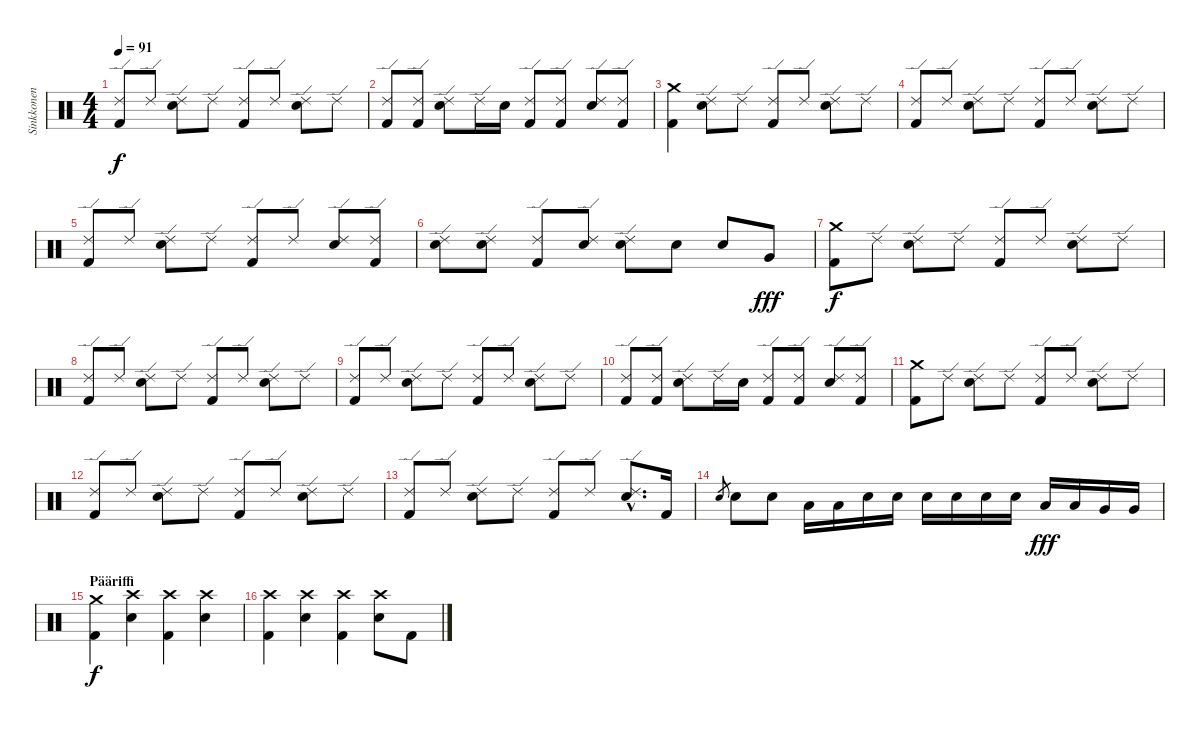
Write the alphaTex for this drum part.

\track ("Sinkkonen" "Sinkkonen") {instrument percussion}
\staff {score}
\articulation defaults
\ts (4 4)
\tempo 91
\clef neutral
\ks c
("Kick (hit) 2" "Ride (edge) 2").8{dy f} "Ride (edge) 2".8 ("Ride (edge) 2" "Snare (hit) 2").8 "Ride (edge) 2".8 ("Kick (hit) 2" "Ride (edge) 2").8 "Ride (edge) 2".8 ("Ride (edge) 2" "Snare (hit) 2").8 "Ride (edge) 2".8 |
("Kick (hit) 2" "Ride (edge) 2").8 ("Kick (hit) 2" "Ride (edge) 2").8 ("Ride (edge) 2" "Snare (hit) 2").8 "Ride (edge) 2".16 "Snare (hit) 2".16 ("Kick (hit) 2" "Ride (edge) 2").8 ("Kick (hit) 2" "Ride (edge) 2").8 ("Ride (edge) 2" "Snare (hit) 2").8 ("Kick (hit) 2" "Ride (edge) 2").8 |
("Kick (hit) 2" "Crash medium (hit)").4 ("Ride (edge) 2" "Snare (hit) 2").8 "Ride (edge) 2".8 ("Kick (hit) 2" "Ride (edge) 2").8 "Ride (edge) 2".8 ("Ride (edge) 2" "Snare (hit) 2").8 "Ride (edge) 2".8 |
("Kick (hit) 2" "Ride (edge) 2").8 "Ride (edge) 2".8 ("Ride (edge) 2" "Snare (hit) 2").8 "Ride (edge) 2".8 ("Kick (hit) 2" "Ride (edge) 2").8 "Ride (edge) 2".8 ("Ride (edge) 2" "Snare (hit) 2").8 "Ride (edge) 2".8 |
("Kick (hit) 2" "Ride (edge) 2").8 "Ride (edge) 2".8 ("Ride (edge) 2" "Snare (hit) 2").8 "Ride (edge) 2".8 ("Kick (hit) 2" "Ride (edge) 2").8 "Ride (edge) 2".8 ("Ride (edge) 2" "Snare (hit) 2").8 ("Kick (hit) 2" "Ride (edge) 2").8 |
("Ride (edge) 2" "Snare (hit) 2").8 ("Ride (edge) 2" "Snare (hit) 2").8 ("Kick (hit) 2" "Ride (edge) 2").8 ("Ride (edge) 2" "Snare (hit) 2").8 ("Ride (edge) 2" "Snare (hit) 2").8 "Snare (hit) 2".8 "Snare (hit) 2".8 "Very Low Tom (hit)".8{dy fff} |
("Kick (hit) 2" "Crash medium (hit)").8{dy f} "Ride (edge) 2".8 ("Ride (edge) 2" "Snare (hit) 2").8 "Ride (edge) 2".8 ("Kick (hit) 2" "Ride (edge) 2").8 "Ride (edge) 2".8 ("Ride (edge) 2" "Snare (hit) 2").8 "Ride (edge) 2".8 |
("Kick (hit) 2" "Ride (edge) 2").8 "Ride (edge) 2".8 ("Ride (edge) 2" "Snare (hit) 2").8 "Ride (edge) 2".8 ("Kick (hit) 2" "Ride (edge) 2").8 "Ride (edge) 2".8 ("Ride (edge) 2" "Snare (hit) 2").8 "Ride (edge) 2".8 |
("Kick (hit) 2" "Ride (edge) 2").8 "Ride (edge) 2".8 ("Ride (edge) 2" "Snare (hit) 2").8 "Ride (edge) 2".8 ("Kick (hit) 2" "Ride (edge) 2").8 "Ride (edge) 2".8 ("Ride (edge) 2" "Snare (hit) 2").8 "Ride (edge) 2".8 |
("Kick (hit) 2" "Ride (edge) 2").8 ("Kick (hit) 2" "Ride (edge) 2").8 ("Ride (edge) 2" "Snare (hit) 2").8 "Ride (edge) 2".16 "Snare (hit) 2".16 ("Kick (hit) 2" "Ride (edge) 2").8 ("Kick (hit) 2" "Ride (edge) 2").8 ("Ride (edge) 2" "Snare (hit) 2").8 ("Kick (hit) 2" "Ride (edge) 2").8 |
("Kick (hit) 2" "Crash medium (hit)").8 "Ride (edge) 2".8 ("Ride (edge) 2" "Snare (hit) 2").8 "Ride (edge) 2".8 ("Kick (hit) 2" "Ride (edge) 2").8 "Ride (edge) 2".8 ("Ride (edge) 2" "Snare (hit) 2").8 "Ride (edge) 2".8 |
("Kick (hit) 2" "Ride (edge) 2").8 "Ride (edge) 2".8 ("Ride (edge) 2" "Snare (hit) 2").8 "Ride (edge) 2".8 ("Kick (hit) 2" "Ride (edge) 2").8 "Ride (edge) 2".8 ("Ride (edge) 2" "Snare (hit) 2").8 "Ride (edge) 2".8 |
("Kick (hit) 2" "Ride (edge) 2").8 "Ride (edge) 2".8 ("Ride (edge) 2" "Snare (hit) 2").8 "Ride (edge) 2".8 ("Kick (hit) 2" "Ride (edge) 2").8 "Ride (edge) 2".8 ("Ride (edge) 2"{hac} "Snare (hit) 2"{hac}).8{d} "Kick (hit) 2".16 |
"Snare (hit) 2".8{gr} "Snare (hit) 2".8 "Snare (hit) 2".8 "Low Tom (hit)".16 "Low Tom (hit)".16 "Snare (hit) 2".16 "Snare (hit) 2".16 "Snare (hit) 2".16 "Snare (hit) 2".16 "Snare (hit) 2".16 "Snare (hit) 2".16 "Low Tom (hit)".16{dy fff} "Low Tom (hit)".16 "Very Low Tom (hit)".16 "Very Low Tom (hit)".16 |
\section ("" "Pääriffi")
("Kick (hit) 2" "Crash medium (hit)").4{dy f} ("Crash high (hit)" "Snare (hit) 2").4 ("Kick (hit) 2" "Crash high (hit)").4 ("Crash high (hit)" "Snare (hit) 2").4 |
("Kick (hit) 2" "Crash high (hit)").4 ("Crash high (hit)" "Snare (hit) 2").4 ("Kick (hit) 2" "Crash high (hit)").4 ("Crash high (hit)" "Snare (hit) 2").8 "Kick (hit) 2".8
